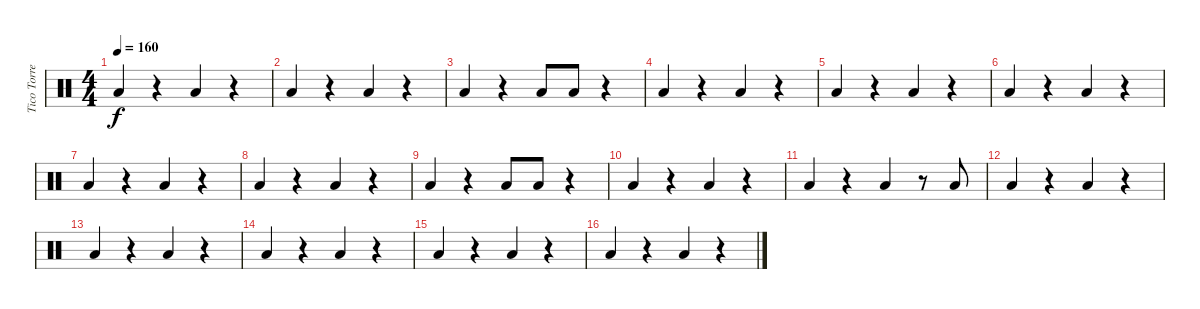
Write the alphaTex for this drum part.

\track ("Tico Torres" "Tico Torre") {instrument percussion}
\staff {score}
\articulation defaults
\ts (4 4)
\tempo 160
\clef neutral
\ks c "Low Floor Tom (hit)".4{dy f}
r.4 "Low Floor Tom (hit)".4 r.4 |
"Low Floor Tom (hit)".4 r.4 "Low Floor Tom (hit)".4 r.4 |
"Low Floor Tom (hit)".4 r.4 "Low Floor Tom (hit)".8 "Low Floor Tom (hit)".8 r.4 |
"Low Floor Tom (hit)".4 r.4 "Low Floor Tom (hit)".4 r.4 |
"Low Floor Tom (hit)".4 r.4 "Low Floor Tom (hit)".4 r.4 |
"Low Floor Tom (hit)".4 r.4 "Low Floor Tom (hit)".4 r.4 |
"Low Floor Tom (hit)".4 r.4 "Low Floor Tom (hit)".4 r.4 |
"Low Floor Tom (hit)".4 r.4 "Low Floor Tom (hit)".4 r.4 |
"Low Floor Tom (hit)".4 r.4 "Low Floor Tom (hit)".8 "Low Floor Tom (hit)".8 r.4 |
"Low Floor Tom (hit)".4 r.4 "Low Floor Tom (hit)".4 r.4 |
"Low Floor Tom (hit)".4 r.4 "Low Floor Tom (hit)".4 r.8 "Low Floor Tom (hit)".8 |
"Low Floor Tom (hit)".4 r.4 "Low Floor Tom (hit)".4 r.4 |
"Low Floor Tom (hit)".4 r.4 "Low Floor Tom (hit)".4 r.4 |
"Low Floor Tom (hit)".4 r.4 "Low Floor Tom (hit)".4 r.4 |
"Low Floor Tom (hit)".4 r.4 "Low Floor Tom (hit)".4 r.4 |
"Low Floor Tom (hit)".4 r.4 "Low Floor Tom (hit)".4 r.4
